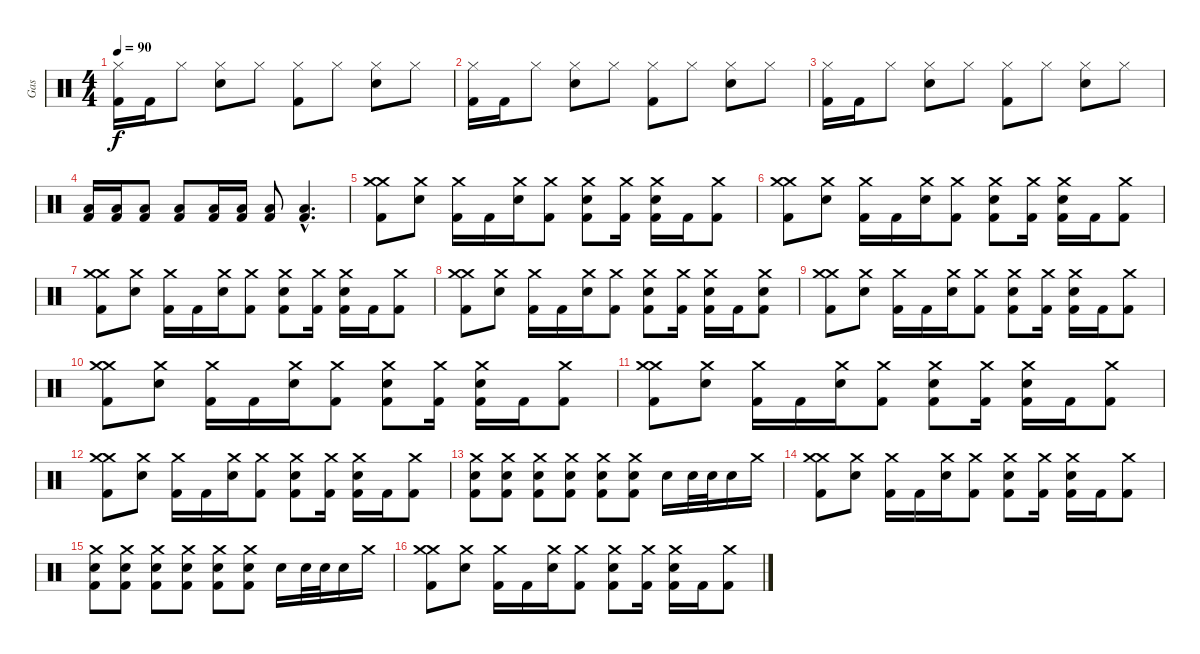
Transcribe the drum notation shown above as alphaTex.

\track ("Gas" "Gas") {instrument percussion}
\staff {score}
\articulation defaults
\ts (4 4)
\tempo 90
\clef neutral
\ks c
("Hi-Hat (closed)" "Kick (hit) 2").16{dy f} "Kick (hit) 2".16 "Hi-Hat (closed)".8 ("Snare (hit) 2" "Hi-Hat (closed)").8 "Hi-Hat (closed)".8 ("Hi-Hat (closed)" "Kick (hit) 2").8 "Hi-Hat (closed)".8 ("Snare (hit) 2" "Hi-Hat (closed)").8 "Hi-Hat (closed)".8 |
("Hi-Hat (closed)" "Kick (hit) 2").16 "Kick (hit) 2".16 "Hi-Hat (closed)".8 ("Snare (hit) 2" "Hi-Hat (closed)").8 "Hi-Hat (closed)".8 ("Hi-Hat (closed)" "Kick (hit) 2").8 "Hi-Hat (closed)".8 ("Snare (hit) 2" "Hi-Hat (closed)").8 "Hi-Hat (closed)".8 |
("Hi-Hat (closed)" "Kick (hit) 2").16 "Kick (hit) 2".16 "Hi-Hat (closed)".8 ("Snare (hit) 2" "Hi-Hat (closed)").8 "Hi-Hat (closed)".8 ("Hi-Hat (closed)" "Kick (hit) 2").8 "Hi-Hat (closed)".8 ("Snare (hit) 2" "Hi-Hat (closed)").8 "Hi-Hat (closed)".8 |
("Low Floor Tom (hit)" "Kick (hit) 2").16 ("Low Floor Tom (hit)" "Kick (hit) 2").16 ("Low Floor Tom (hit)" "Kick (hit) 2").8 ("Low Floor Tom (hit)" "Kick (hit) 2").8 ("Low Floor Tom (hit)" "Kick (hit) 2").16 ("Low Floor Tom (hit)" "Kick (hit) 2").16 ("Low Floor Tom (hit)" "Kick (hit) 2").8 ("Low Floor Tom (hit)"{hac} "Kick (hit) 2"{hac}).4{d} |
("Crash medium (hit)" "Crash medium (hit)" "Kick (hit) 2").8 ("Snare (hit) 2" "Crash medium (hit)").8 ("Crash medium (hit)" "Kick (hit) 2").16 "Kick (hit) 2".16 ("Snare (hit) 2" "Crash medium (hit)").16 ("Crash medium (hit)" "Kick (hit) 2").8 ("Snare (hit) 2" "Crash medium (hit)" "Kick (hit) 2").8 ("Crash medium (hit)" "Kick (hit) 2").16 ("Snare (hit) 2" "Crash medium (hit)" "Kick (hit) 2").16 "Kick (hit) 2".16 ("Crash medium (hit)" "Kick (hit) 2").8 |
("Crash medium (hit)" "Crash medium (hit)" "Kick (hit) 2").8 ("Snare (hit) 2" "Crash medium (hit)").8 ("Crash medium (hit)" "Kick (hit) 2").16 "Kick (hit) 2".16 ("Snare (hit) 2" "Crash medium (hit)").16 ("Crash medium (hit)" "Kick (hit) 2").8 ("Snare (hit) 2" "Crash medium (hit)" "Kick (hit) 2").8 ("Crash medium (hit)" "Kick (hit) 2").16 ("Snare (hit) 2" "Crash medium (hit)" "Kick (hit) 2").16 "Kick (hit) 2".16 ("Crash medium (hit)" "Kick (hit) 2").8 |
("Crash medium (hit)" "Crash medium (hit)" "Kick (hit) 2").8 ("Snare (hit) 2" "Crash medium (hit)").8 ("Crash medium (hit)" "Kick (hit) 2").16 "Kick (hit) 2".16 ("Snare (hit) 2" "Crash medium (hit)").16 ("Crash medium (hit)" "Kick (hit) 2").8 ("Snare (hit) 2" "Crash medium (hit)" "Kick (hit) 2").8 ("Crash medium (hit)" "Kick (hit) 2").16 ("Snare (hit) 2" "Crash medium (hit)" "Kick (hit) 2").16 "Kick (hit) 2".16 ("Crash medium (hit)" "Kick (hit) 2").8 |
("Crash medium (hit)" "Crash medium (hit)" "Kick (hit) 2").8 ("Snare (hit) 2" "Crash medium (hit)").8 ("Crash medium (hit)" "Kick (hit) 2").16 "Kick (hit) 2".16 ("Snare (hit) 2" "Crash medium (hit)").16 ("Crash medium (hit)" "Kick (hit) 2").8 ("Snare (hit) 2" "Crash medium (hit)" "Kick (hit) 2").8 ("Crash medium (hit)" "Kick (hit) 2").16 ("Snare (hit) 2" "Crash medium (hit)" "Kick (hit) 2").16 "Kick (hit) 2".16 ("Snare (hit) 2" "Crash medium (hit)" "Kick (hit) 2").8 |
("Crash medium (hit)" "Crash medium (hit)" "Kick (hit) 2").8 ("Snare (hit) 2" "Crash medium (hit)").8 ("Crash medium (hit)" "Kick (hit) 2").16 "Kick (hit) 2".16 ("Snare (hit) 2" "Crash medium (hit)").16 ("Crash medium (hit)" "Kick (hit) 2").8 ("Snare (hit) 2" "Crash medium (hit)" "Kick (hit) 2").8 ("Crash medium (hit)" "Kick (hit) 2").16 ("Snare (hit) 2" "Crash medium (hit)" "Kick (hit) 2").16 "Kick (hit) 2".16 ("Crash medium (hit)" "Kick (hit) 2").8 |
("Crash medium (hit)" "Crash medium (hit)" "Kick (hit) 2").8 ("Snare (hit) 2" "Crash medium (hit)").8 ("Crash medium (hit)" "Kick (hit) 2").16 "Kick (hit) 2".16 ("Snare (hit) 2" "Crash medium (hit)").16 ("Crash medium (hit)" "Kick (hit) 2").8 ("Snare (hit) 2" "Crash medium (hit)" "Kick (hit) 2").8 ("Crash medium (hit)" "Kick (hit) 2").16 ("Snare (hit) 2" "Crash medium (hit)" "Kick (hit) 2").16 "Kick (hit) 2".16 ("Crash medium (hit)" "Kick (hit) 2").8 |
("Crash medium (hit)" "Crash medium (hit)" "Kick (hit) 2").8 ("Snare (hit) 2" "Crash medium (hit)").8 ("Crash medium (hit)" "Kick (hit) 2").16 "Kick (hit) 2".16 ("Snare (hit) 2" "Crash medium (hit)").16 ("Crash medium (hit)" "Kick (hit) 2").8 ("Snare (hit) 2" "Crash medium (hit)" "Kick (hit) 2").8 ("Crash medium (hit)" "Kick (hit) 2").16 ("Snare (hit) 2" "Crash medium (hit)" "Kick (hit) 2").16 "Kick (hit) 2".16 ("Crash medium (hit)" "Kick (hit) 2").8 |
("Crash medium (hit)" "Crash medium (hit)" "Kick (hit) 2").8 ("Snare (hit) 2" "Crash medium (hit)").8 ("Crash medium (hit)" "Kick (hit) 2").16 "Kick (hit) 2".16 ("Snare (hit) 2" "Crash medium (hit)").16 ("Crash medium (hit)" "Kick (hit) 2").8 ("Snare (hit) 2" "Crash medium (hit)" "Kick (hit) 2").8 ("Crash medium (hit)" "Kick (hit) 2").16 ("Snare (hit) 2" "Crash medium (hit)" "Kick (hit) 2").16 "Kick (hit) 2".16 ("Crash medium (hit)" "Kick (hit) 2").8 |
("Crash medium (hit)" "Snare (hit) 2" "Kick (hit) 2").8 ("Crash medium (hit)" "Snare (hit) 2" "Kick (hit) 2").8 ("Crash medium (hit)" "Snare (hit) 2" "Kick (hit) 2").8 ("Crash medium (hit)" "Snare (hit) 2" "Kick (hit) 2").8 ("Crash medium (hit)" "Snare (hit) 2" "Kick (hit) 2").8 ("Crash medium (hit)" "Snare (hit) 2" "Kick (hit) 2").8 "Snare (hit) 2".16 "Snare (hit) 2".32 "Snare (hit) 2".32 "Snare (hit) 2".16 "Crash medium (hit)".16 |
("Crash medium (hit)" "Crash medium (hit)" "Kick (hit) 2").8 ("Snare (hit) 2" "Crash medium (hit)").8 ("Crash medium (hit)" "Kick (hit) 2").16 "Kick (hit) 2".16 ("Snare (hit) 2" "Crash medium (hit)").16 ("Crash medium (hit)" "Kick (hit) 2").8 ("Snare (hit) 2" "Crash medium (hit)" "Kick (hit) 2").8 ("Crash medium (hit)" "Kick (hit) 2").16 ("Snare (hit) 2" "Crash medium (hit)" "Kick (hit) 2").16 "Kick (hit) 2".16 ("Crash medium (hit)" "Kick (hit) 2").8 |
("Crash medium (hit)" "Snare (hit) 2" "Kick (hit) 2").8 ("Crash medium (hit)" "Snare (hit) 2" "Kick (hit) 2").8 ("Crash medium (hit)" "Snare (hit) 2" "Kick (hit) 2").8 ("Crash medium (hit)" "Snare (hit) 2" "Kick (hit) 2").8 ("Crash medium (hit)" "Snare (hit) 2" "Kick (hit) 2").8 ("Crash medium (hit)" "Snare (hit) 2" "Kick (hit) 2").8 "Snare (hit) 2".16 "Snare (hit) 2".32 "Snare (hit) 2".32 "Snare (hit) 2".16 "Crash medium (hit)".16 |
("Crash medium (hit)" "Crash medium (hit)" "Kick (hit) 2").8 ("Snare (hit) 2" "Crash medium (hit)").8 ("Crash medium (hit)" "Kick (hit) 2").16 "Kick (hit) 2".16 ("Snare (hit) 2" "Crash medium (hit)").16 ("Crash medium (hit)" "Kick (hit) 2").8 ("Snare (hit) 2" "Crash medium (hit)" "Kick (hit) 2").8 ("Crash medium (hit)" "Kick (hit) 2").16 ("Snare (hit) 2" "Crash medium (hit)" "Kick (hit) 2").16 "Kick (hit) 2".16 ("Crash medium (hit)" "Kick (hit) 2").8
